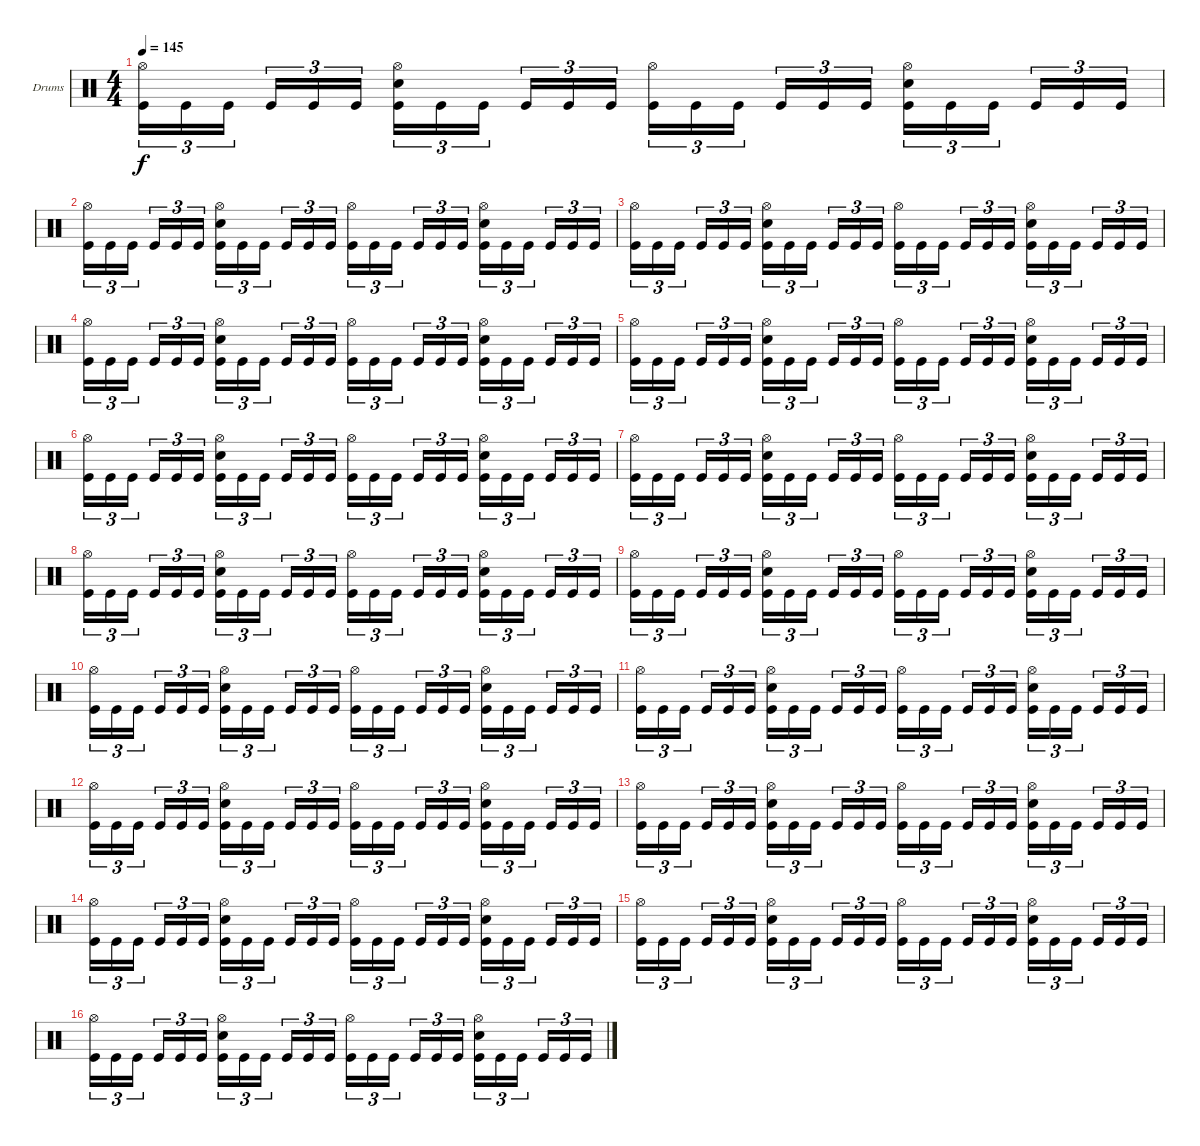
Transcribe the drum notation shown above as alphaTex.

\bracketExtendMode groupsimilarinstruments
\firstSystemTrackNameOrientation horizontal
\otherSystemsTrackNameOrientation horizontal
\track ("FREDRIK ANDERSSON" "Drums") {instrument percussion}
\staff {score}
\articulation defaults
\ts (4 4)
\tempo 145
\clef neutral
\ks c
("Hi-Hat (open)" "Kick (hit)").16{tu (3 2) dy f} "Kick (hit)".16{tu (3 2)} "Kick (hit)".16{tu (3 2)} "Kick (hit)".16{tu (3 2)} "Kick (hit)".16{tu (3 2)} "Kick (hit)".16{tu (3 2)} ("Hi-Hat (open)" "Snare (hit) 2" "Kick (hit)").16{tu (3 2)} "Kick (hit)".16{tu (3 2)} "Kick (hit)".16{tu (3 2)} "Kick (hit)".16{tu (3 2)} "Kick (hit)".16{tu (3 2)} "Kick (hit)".16{tu (3 2)} ("Hi-Hat (open)" "Kick (hit)").16{tu (3 2)} "Kick (hit)".16{tu (3 2)} "Kick (hit)".16{tu (3 2)} "Kick (hit)".16{tu (3 2)} "Kick (hit)".16{tu (3 2)} "Kick (hit)".16{tu (3 2)} ("Hi-Hat (open)" "Snare (hit) 2" "Kick (hit)").16{tu (3 2)} "Kick (hit)".16{tu (3 2)} "Kick (hit)".16{tu (3 2)} "Kick (hit)".16{tu (3 2)} "Kick (hit)".16{tu (3 2)} "Kick (hit)".16{tu (3 2)} |
("Hi-Hat (open)" "Kick (hit)").16{tu (3 2)} "Kick (hit)".16{tu (3 2)} "Kick (hit)".16{tu (3 2)} "Kick (hit)".16{tu (3 2)} "Kick (hit)".16{tu (3 2)} "Kick (hit)".16{tu (3 2)} ("Hi-Hat (open)" "Snare (hit) 2" "Kick (hit)").16{tu (3 2)} "Kick (hit)".16{tu (3 2)} "Kick (hit)".16{tu (3 2)} "Kick (hit)".16{tu (3 2)} "Kick (hit)".16{tu (3 2)} "Kick (hit)".16{tu (3 2)} ("Hi-Hat (open)" "Kick (hit)").16{tu (3 2)} "Kick (hit)".16{tu (3 2)} "Kick (hit)".16{tu (3 2)} "Kick (hit)".16{tu (3 2)} "Kick (hit)".16{tu (3 2)} "Kick (hit)".16{tu (3 2)} ("Hi-Hat (open)" "Snare (hit) 2" "Kick (hit)").16{tu (3 2)} "Kick (hit)".16{tu (3 2)} "Kick (hit)".16{tu (3 2)} "Kick (hit)".16{tu (3 2)} "Kick (hit)".16{tu (3 2)} "Kick (hit)".16{tu (3 2)} |
("Hi-Hat (open)" "Kick (hit)").16{tu (3 2)} "Kick (hit)".16{tu (3 2)} "Kick (hit)".16{tu (3 2)} "Kick (hit)".16{tu (3 2)} "Kick (hit)".16{tu (3 2)} "Kick (hit)".16{tu (3 2)} ("Hi-Hat (open)" "Snare (hit) 2" "Kick (hit)").16{tu (3 2)} "Kick (hit)".16{tu (3 2)} "Kick (hit)".16{tu (3 2)} "Kick (hit)".16{tu (3 2)} "Kick (hit)".16{tu (3 2)} "Kick (hit)".16{tu (3 2)} ("Hi-Hat (open)" "Kick (hit)").16{tu (3 2)} "Kick (hit)".16{tu (3 2)} "Kick (hit)".16{tu (3 2)} "Kick (hit)".16{tu (3 2)} "Kick (hit)".16{tu (3 2)} "Kick (hit)".16{tu (3 2)} ("Hi-Hat (open)" "Snare (hit) 2" "Kick (hit)").16{tu (3 2)} "Kick (hit)".16{tu (3 2)} "Kick (hit)".16{tu (3 2)} "Kick (hit)".16{tu (3 2)} "Kick (hit)".16{tu (3 2)} "Kick (hit)".16{tu (3 2)} |
("Hi-Hat (open)" "Kick (hit)").16{tu (3 2)} "Kick (hit)".16{tu (3 2)} "Kick (hit)".16{tu (3 2)} "Kick (hit)".16{tu (3 2)} "Kick (hit)".16{tu (3 2)} "Kick (hit)".16{tu (3 2)} ("Hi-Hat (open)" "Snare (hit) 2" "Kick (hit)").16{tu (3 2)} "Kick (hit)".16{tu (3 2)} "Kick (hit)".16{tu (3 2)} "Kick (hit)".16{tu (3 2)} "Kick (hit)".16{tu (3 2)} "Kick (hit)".16{tu (3 2)} ("Hi-Hat (open)" "Kick (hit)").16{tu (3 2)} "Kick (hit)".16{tu (3 2)} "Kick (hit)".16{tu (3 2)} "Kick (hit)".16{tu (3 2)} "Kick (hit)".16{tu (3 2)} "Kick (hit)".16{tu (3 2)} ("Hi-Hat (open)" "Snare (hit) 2" "Kick (hit)").16{tu (3 2)} "Kick (hit)".16{tu (3 2)} "Kick (hit)".16{tu (3 2)} "Kick (hit)".16{tu (3 2)} "Kick (hit)".16{tu (3 2)} "Kick (hit)".16{tu (3 2)} |
("Hi-Hat (open)" "Kick (hit)").16{tu (3 2)} "Kick (hit)".16{tu (3 2)} "Kick (hit)".16{tu (3 2)} "Kick (hit)".16{tu (3 2)} "Kick (hit)".16{tu (3 2)} "Kick (hit)".16{tu (3 2)} ("Hi-Hat (open)" "Snare (hit) 2" "Kick (hit)").16{tu (3 2)} "Kick (hit)".16{tu (3 2)} "Kick (hit)".16{tu (3 2)} "Kick (hit)".16{tu (3 2)} "Kick (hit)".16{tu (3 2)} "Kick (hit)".16{tu (3 2)} ("Hi-Hat (open)" "Kick (hit)").16{tu (3 2)} "Kick (hit)".16{tu (3 2)} "Kick (hit)".16{tu (3 2)} "Kick (hit)".16{tu (3 2)} "Kick (hit)".16{tu (3 2)} "Kick (hit)".16{tu (3 2)} ("Hi-Hat (open)" "Snare (hit) 2" "Kick (hit)").16{tu (3 2)} "Kick (hit)".16{tu (3 2)} "Kick (hit)".16{tu (3 2)} "Kick (hit)".16{tu (3 2)} "Kick (hit)".16{tu (3 2)} "Kick (hit)".16{tu (3 2)} |
("Hi-Hat (open)" "Kick (hit)").16{tu (3 2)} "Kick (hit)".16{tu (3 2)} "Kick (hit)".16{tu (3 2)} "Kick (hit)".16{tu (3 2)} "Kick (hit)".16{tu (3 2)} "Kick (hit)".16{tu (3 2)} ("Hi-Hat (open)" "Snare (hit) 2" "Kick (hit)").16{tu (3 2)} "Kick (hit)".16{tu (3 2)} "Kick (hit)".16{tu (3 2)} "Kick (hit)".16{tu (3 2)} "Kick (hit)".16{tu (3 2)} "Kick (hit)".16{tu (3 2)} ("Hi-Hat (open)" "Kick (hit)").16{tu (3 2)} "Kick (hit)".16{tu (3 2)} "Kick (hit)".16{tu (3 2)} "Kick (hit)".16{tu (3 2)} "Kick (hit)".16{tu (3 2)} "Kick (hit)".16{tu (3 2)} ("Hi-Hat (open)" "Snare (hit) 2" "Kick (hit)").16{tu (3 2)} "Kick (hit)".16{tu (3 2)} "Kick (hit)".16{tu (3 2)} "Kick (hit)".16{tu (3 2)} "Kick (hit)".16{tu (3 2)} "Kick (hit)".16{tu (3 2)} |
("Hi-Hat (open)" "Kick (hit)").16{tu (3 2)} "Kick (hit)".16{tu (3 2)} "Kick (hit)".16{tu (3 2)} "Kick (hit)".16{tu (3 2)} "Kick (hit)".16{tu (3 2)} "Kick (hit)".16{tu (3 2)} ("Hi-Hat (open)" "Snare (hit) 2" "Kick (hit)").16{tu (3 2)} "Kick (hit)".16{tu (3 2)} "Kick (hit)".16{tu (3 2)} "Kick (hit)".16{tu (3 2)} "Kick (hit)".16{tu (3 2)} "Kick (hit)".16{tu (3 2)} ("Hi-Hat (open)" "Kick (hit)").16{tu (3 2)} "Kick (hit)".16{tu (3 2)} "Kick (hit)".16{tu (3 2)} "Kick (hit)".16{tu (3 2)} "Kick (hit)".16{tu (3 2)} "Kick (hit)".16{tu (3 2)} ("Hi-Hat (open)" "Snare (hit) 2" "Kick (hit)").16{tu (3 2)} "Kick (hit)".16{tu (3 2)} "Kick (hit)".16{tu (3 2)} "Kick (hit)".16{tu (3 2)} "Kick (hit)".16{tu (3 2)} "Kick (hit)".16{tu (3 2)} |
("Hi-Hat (open)" "Kick (hit)").16{tu (3 2)} "Kick (hit)".16{tu (3 2)} "Kick (hit)".16{tu (3 2)} "Kick (hit)".16{tu (3 2)} "Kick (hit)".16{tu (3 2)} "Kick (hit)".16{tu (3 2)} ("Hi-Hat (open)" "Snare (hit) 2" "Kick (hit)").16{tu (3 2)} "Kick (hit)".16{tu (3 2)} "Kick (hit)".16{tu (3 2)} "Kick (hit)".16{tu (3 2)} "Kick (hit)".16{tu (3 2)} "Kick (hit)".16{tu (3 2)} ("Hi-Hat (open)" "Kick (hit)").16{tu (3 2)} "Kick (hit)".16{tu (3 2)} "Kick (hit)".16{tu (3 2)} "Kick (hit)".16{tu (3 2)} "Kick (hit)".16{tu (3 2)} "Kick (hit)".16{tu (3 2)} ("Hi-Hat (open)" "Snare (hit) 2" "Kick (hit)").16{tu (3 2)} "Kick (hit)".16{tu (3 2)} "Kick (hit)".16{tu (3 2)} "Kick (hit)".16{tu (3 2)} "Kick (hit)".16{tu (3 2)} "Kick (hit)".16{tu (3 2)} |
("Hi-Hat (open)" "Kick (hit)").16{tu (3 2)} "Kick (hit)".16{tu (3 2)} "Kick (hit)".16{tu (3 2)} "Kick (hit)".16{tu (3 2)} "Kick (hit)".16{tu (3 2)} "Kick (hit)".16{tu (3 2)} ("Hi-Hat (open)" "Snare (hit) 2" "Kick (hit)").16{tu (3 2)} "Kick (hit)".16{tu (3 2)} "Kick (hit)".16{tu (3 2)} "Kick (hit)".16{tu (3 2)} "Kick (hit)".16{tu (3 2)} "Kick (hit)".16{tu (3 2)} ("Hi-Hat (open)" "Kick (hit)").16{tu (3 2)} "Kick (hit)".16{tu (3 2)} "Kick (hit)".16{tu (3 2)} "Kick (hit)".16{tu (3 2)} "Kick (hit)".16{tu (3 2)} "Kick (hit)".16{tu (3 2)} ("Hi-Hat (open)" "Snare (hit) 2" "Kick (hit)").16{tu (3 2)} "Kick (hit)".16{tu (3 2)} "Kick (hit)".16{tu (3 2)} "Kick (hit)".16{tu (3 2)} "Kick (hit)".16{tu (3 2)} "Kick (hit)".16{tu (3 2)} |
("Hi-Hat (open)" "Kick (hit)").16{tu (3 2)} "Kick (hit)".16{tu (3 2)} "Kick (hit)".16{tu (3 2)} "Kick (hit)".16{tu (3 2)} "Kick (hit)".16{tu (3 2)} "Kick (hit)".16{tu (3 2)} ("Hi-Hat (open)" "Snare (hit) 2" "Kick (hit)").16{tu (3 2)} "Kick (hit)".16{tu (3 2)} "Kick (hit)".16{tu (3 2)} "Kick (hit)".16{tu (3 2)} "Kick (hit)".16{tu (3 2)} "Kick (hit)".16{tu (3 2)} ("Hi-Hat (open)" "Kick (hit)").16{tu (3 2)} "Kick (hit)".16{tu (3 2)} "Kick (hit)".16{tu (3 2)} "Kick (hit)".16{tu (3 2)} "Kick (hit)".16{tu (3 2)} "Kick (hit)".16{tu (3 2)} ("Hi-Hat (open)" "Snare (hit) 2" "Kick (hit)").16{tu (3 2)} "Kick (hit)".16{tu (3 2)} "Kick (hit)".16{tu (3 2)} "Kick (hit)".16{tu (3 2)} "Kick (hit)".16{tu (3 2)} "Kick (hit)".16{tu (3 2)} |
("Hi-Hat (open)" "Kick (hit)").16{tu (3 2)} "Kick (hit)".16{tu (3 2)} "Kick (hit)".16{tu (3 2)} "Kick (hit)".16{tu (3 2)} "Kick (hit)".16{tu (3 2)} "Kick (hit)".16{tu (3 2)} ("Hi-Hat (open)" "Snare (hit) 2" "Kick (hit)").16{tu (3 2)} "Kick (hit)".16{tu (3 2)} "Kick (hit)".16{tu (3 2)} "Kick (hit)".16{tu (3 2)} "Kick (hit)".16{tu (3 2)} "Kick (hit)".16{tu (3 2)} ("Hi-Hat (open)" "Kick (hit)").16{tu (3 2)} "Kick (hit)".16{tu (3 2)} "Kick (hit)".16{tu (3 2)} "Kick (hit)".16{tu (3 2)} "Kick (hit)".16{tu (3 2)} "Kick (hit)".16{tu (3 2)} ("Hi-Hat (open)" "Snare (hit) 2" "Kick (hit)").16{tu (3 2)} "Kick (hit)".16{tu (3 2)} "Kick (hit)".16{tu (3 2)} "Kick (hit)".16{tu (3 2)} "Kick (hit)".16{tu (3 2)} "Kick (hit)".16{tu (3 2)} |
("Hi-Hat (open)" "Kick (hit)").16{tu (3 2)} "Kick (hit)".16{tu (3 2)} "Kick (hit)".16{tu (3 2)} "Kick (hit)".16{tu (3 2)} "Kick (hit)".16{tu (3 2)} "Kick (hit)".16{tu (3 2)} ("Hi-Hat (open)" "Snare (hit) 2" "Kick (hit)").16{tu (3 2)} "Kick (hit)".16{tu (3 2)} "Kick (hit)".16{tu (3 2)} "Kick (hit)".16{tu (3 2)} "Kick (hit)".16{tu (3 2)} "Kick (hit)".16{tu (3 2)} ("Hi-Hat (open)" "Kick (hit)").16{tu (3 2)} "Kick (hit)".16{tu (3 2)} "Kick (hit)".16{tu (3 2)} "Kick (hit)".16{tu (3 2)} "Kick (hit)".16{tu (3 2)} "Kick (hit)".16{tu (3 2)} ("Hi-Hat (open)" "Snare (hit) 2" "Kick (hit)").16{tu (3 2)} "Kick (hit)".16{tu (3 2)} "Kick (hit)".16{tu (3 2)} "Kick (hit)".16{tu (3 2)} "Kick (hit)".16{tu (3 2)} "Kick (hit)".16{tu (3 2)} |
("Hi-Hat (open)" "Kick (hit)").16{tu (3 2)} "Kick (hit)".16{tu (3 2)} "Kick (hit)".16{tu (3 2)} "Kick (hit)".16{tu (3 2)} "Kick (hit)".16{tu (3 2)} "Kick (hit)".16{tu (3 2)} ("Hi-Hat (open)" "Snare (hit) 2" "Kick (hit)").16{tu (3 2)} "Kick (hit)".16{tu (3 2)} "Kick (hit)".16{tu (3 2)} "Kick (hit)".16{tu (3 2)} "Kick (hit)".16{tu (3 2)} "Kick (hit)".16{tu (3 2)} ("Hi-Hat (open)" "Kick (hit)").16{tu (3 2)} "Kick (hit)".16{tu (3 2)} "Kick (hit)".16{tu (3 2)} "Kick (hit)".16{tu (3 2)} "Kick (hit)".16{tu (3 2)} "Kick (hit)".16{tu (3 2)} ("Hi-Hat (open)" "Snare (hit) 2" "Kick (hit)").16{tu (3 2)} "Kick (hit)".16{tu (3 2)} "Kick (hit)".16{tu (3 2)} "Kick (hit)".16{tu (3 2)} "Kick (hit)".16{tu (3 2)} "Kick (hit)".16{tu (3 2)} |
("Hi-Hat (open)" "Kick (hit)").16{tu (3 2)} "Kick (hit)".16{tu (3 2)} "Kick (hit)".16{tu (3 2)} "Kick (hit)".16{tu (3 2)} "Kick (hit)".16{tu (3 2)} "Kick (hit)".16{tu (3 2)} ("Hi-Hat (open)" "Snare (hit) 2" "Kick (hit)").16{tu (3 2)} "Kick (hit)".16{tu (3 2)} "Kick (hit)".16{tu (3 2)} "Kick (hit)".16{tu (3 2)} "Kick (hit)".16{tu (3 2)} "Kick (hit)".16{tu (3 2)} ("Hi-Hat (open)" "Kick (hit)").16{tu (3 2)} "Kick (hit)".16{tu (3 2)} "Kick (hit)".16{tu (3 2)} "Kick (hit)".16{tu (3 2)} "Kick (hit)".16{tu (3 2)} "Kick (hit)".16{tu (3 2)} ("Hi-Hat (open)" "Snare (hit) 2" "Kick (hit)").16{tu (3 2)} "Kick (hit)".16{tu (3 2)} "Kick (hit)".16{tu (3 2)} "Kick (hit)".16{tu (3 2)} "Kick (hit)".16{tu (3 2)} "Kick (hit)".16{tu (3 2)} |
("Hi-Hat (open)" "Kick (hit)").16{tu (3 2)} "Kick (hit)".16{tu (3 2)} "Kick (hit)".16{tu (3 2)} "Kick (hit)".16{tu (3 2)} "Kick (hit)".16{tu (3 2)} "Kick (hit)".16{tu (3 2)} ("Hi-Hat (open)" "Snare (hit) 2" "Kick (hit)").16{tu (3 2)} "Kick (hit)".16{tu (3 2)} "Kick (hit)".16{tu (3 2)} "Kick (hit)".16{tu (3 2)} "Kick (hit)".16{tu (3 2)} "Kick (hit)".16{tu (3 2)} ("Hi-Hat (open)" "Kick (hit)").16{tu (3 2)} "Kick (hit)".16{tu (3 2)} "Kick (hit)".16{tu (3 2)} "Kick (hit)".16{tu (3 2)} "Kick (hit)".16{tu (3 2)} "Kick (hit)".16{tu (3 2)} ("Hi-Hat (open)" "Snare (hit) 2" "Kick (hit)").16{tu (3 2)} "Kick (hit)".16{tu (3 2)} "Kick (hit)".16{tu (3 2)} "Kick (hit)".16{tu (3 2)} "Kick (hit)".16{tu (3 2)} "Kick (hit)".16{tu (3 2)} |
("Hi-Hat (open)" "Kick (hit)").16{tu (3 2)} "Kick (hit)".16{tu (3 2)} "Kick (hit)".16{tu (3 2)} "Kick (hit)".16{tu (3 2)} "Kick (hit)".16{tu (3 2)} "Kick (hit)".16{tu (3 2)} ("Hi-Hat (open)" "Snare (hit) 2" "Kick (hit)").16{tu (3 2)} "Kick (hit)".16{tu (3 2)} "Kick (hit)".16{tu (3 2)} "Kick (hit)".16{tu (3 2)} "Kick (hit)".16{tu (3 2)} "Kick (hit)".16{tu (3 2)} ("Hi-Hat (open)" "Kick (hit)").16{tu (3 2)} "Kick (hit)".16{tu (3 2)} "Kick (hit)".16{tu (3 2)} "Kick (hit)".16{tu (3 2)} "Kick (hit)".16{tu (3 2)} "Kick (hit)".16{tu (3 2)} ("Hi-Hat (open)" "Snare (hit) 2" "Kick (hit)").16{tu (3 2)} "Kick (hit)".16{tu (3 2)} "Kick (hit)".16{tu (3 2)} "Kick (hit)".16{tu (3 2)} "Kick (hit)".16{tu (3 2)} "Kick (hit)".16{tu (3 2)}
